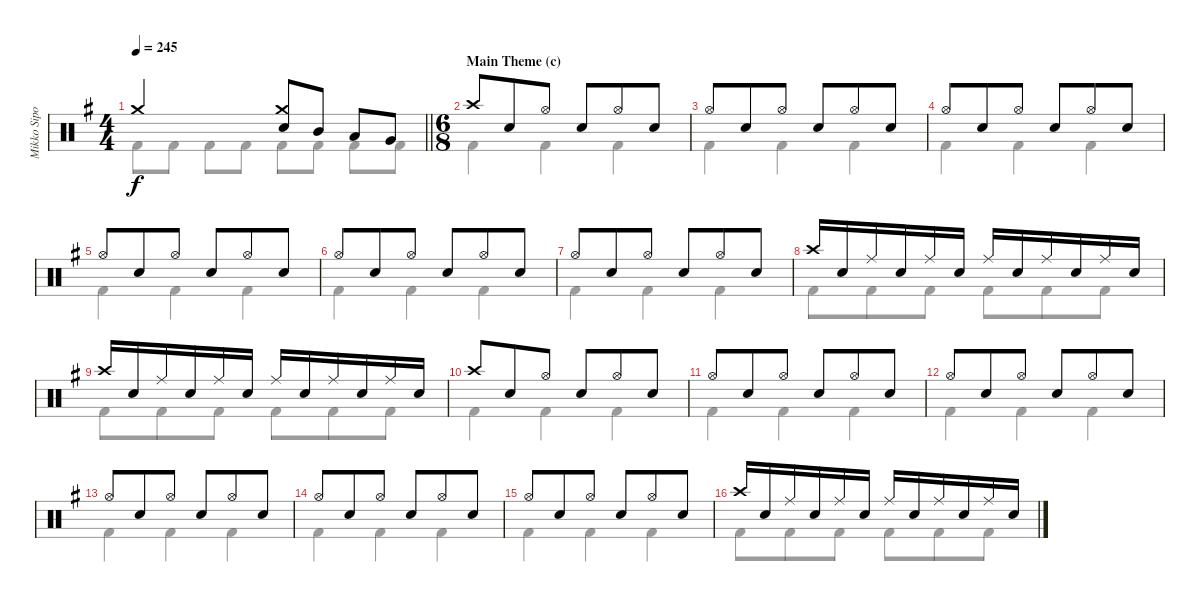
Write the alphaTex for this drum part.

\track ("Mikko Sipola (drums)" "Mikko Sipo") {instrument percussion}
\staff {score}
\articulation defaults
\voice
\ts (4 4)
\tempo 245
\clef neutral
\barLineRight lightlight
\ks eminor "Crash medium (hit)".2{dy f}
("Crash medium (hit)" "Electric Snare (hit)").8 "Mid Tom (hit)".8 "Low Tom (hit)".8 "Very Low Tom (hit)".8 |
\ts (6 8)
\section ("" "Main Theme (c)")
"Crash high (hit)".8 "Snare (hit) 2".8 "Hi-Hat (open)".8 "Snare (hit) 2".8 "Hi-Hat (open)".8 "Snare (hit) 2".8 |
"Hi-Hat (open)".8 "Snare (hit) 2".8 "Hi-Hat (open)".8 "Snare (hit) 2".8 "Hi-Hat (open)".8 "Snare (hit) 2".8 |
"Hi-Hat (open)".8 "Snare (hit) 2".8 "Hi-Hat (open)".8 "Snare (hit) 2".8 "Hi-Hat (open)".8 "Snare (hit) 2".8 |
"Hi-Hat (open)".8 "Snare (hit) 2".8 "Hi-Hat (open)".8 "Snare (hit) 2".8 "Hi-Hat (open)".8 "Snare (hit) 2".8 |
"Hi-Hat (open)".8 "Snare (hit) 2".8 "Hi-Hat (open)".8 "Snare (hit) 2".8 "Hi-Hat (open)".8 "Snare (hit) 2".8 |
"Hi-Hat (open)".8 "Snare (hit) 2".8 "Hi-Hat (open)".8 "Snare (hit) 2".8 "Hi-Hat (open)".8 "Snare (hit) 2".8 |
"Crash high (hit)".16 "Snare (hit) 2".16 "Ride (middle)".16 "Snare (hit) 2".16 "Ride (middle)".16 "Snare (hit) 2".16 "Ride (middle)".16 "Snare (hit) 2".16 "Ride (middle)".16 "Snare (hit) 2".16 "Ride (middle)".16 "Snare (hit) 2".16 |
"Crash high (hit)".16 "Snare (hit) 2".16 "Ride (middle)".16 "Snare (hit) 2".16 "Ride (middle)".16 "Snare (hit) 2".16 "Ride (middle)".16 "Snare (hit) 2".16 "Ride (middle)".16 "Snare (hit) 2".16 "Ride (middle)".16 "Snare (hit) 2".16 |
"Crash high (hit)".8 "Snare (hit) 2".8 "Hi-Hat (open)".8 "Snare (hit) 2".8 "Hi-Hat (open)".8 "Snare (hit) 2".8 |
"Hi-Hat (open)".8 "Snare (hit) 2".8 "Hi-Hat (open)".8 "Snare (hit) 2".8 "Hi-Hat (open)".8 "Snare (hit) 2".8 |
"Hi-Hat (open)".8 "Snare (hit) 2".8 "Hi-Hat (open)".8 "Snare (hit) 2".8 "Hi-Hat (open)".8 "Snare (hit) 2".8 |
"Hi-Hat (open)".8 "Snare (hit) 2".8 "Hi-Hat (open)".8 "Snare (hit) 2".8 "Hi-Hat (open)".8 "Snare (hit) 2".8 |
"Hi-Hat (open)".8 "Snare (hit) 2".8 "Hi-Hat (open)".8 "Snare (hit) 2".8 "Hi-Hat (open)".8 "Snare (hit) 2".8 |
"Hi-Hat (open)".8 "Snare (hit) 2".8 "Hi-Hat (open)".8 "Snare (hit) 2".8 "Hi-Hat (open)".8 "Snare (hit) 2".8 |
"Crash high (hit)".16 "Snare (hit) 2".16 "Ride (middle)".16 "Snare (hit) 2".16 "Ride (middle)".16 "Snare (hit) 2".16 "Ride (middle)".16 "Snare (hit) 2".16 "Ride (middle)".16 "Snare (hit) 2".16 "Ride (middle)".16 "Snare (hit) 2".16
\voice
\clef neutral
\ottava regular
\simile none
\barLineRight lightlight
\ks eminor "Kick (hit) 2".8{dy f} "Kick (hit) 2".8 "Kick (hit) 2".8 "Kick (hit) 2".8 "Kick (hit) 2".8 "Kick (hit) 2".8 "Kick (hit) 2".8 "Kick (hit) 2".8
|
"Kick (hit) 2".4 "Kick (hit) 2".4 "Kick (hit) 2".4 |
"Kick (hit) 2".4 "Kick (hit) 2".4 "Kick (hit) 2".4 |
"Kick (hit) 2".4 "Kick (hit) 2".4 "Kick (hit) 2".4 |
"Kick (hit) 2".4 "Kick (hit) 2".4 "Kick (hit) 2".4 |
"Kick (hit) 2".4 "Kick (hit) 2".4 "Kick (hit) 2".4 |
"Kick (hit) 2".4 "Kick (hit) 2".4 "Kick (hit) 2".4 |
"Kick (hit) 2".8 "Kick (hit) 2".8 "Kick (hit) 2".8 "Kick (hit) 2".8 "Kick (hit) 2".8 "Kick (hit) 2".8 |
"Kick (hit) 2".8 "Kick (hit) 2".8 "Kick (hit) 2".8 "Kick (hit) 2".8 "Kick (hit) 2".8 "Kick (hit) 2".8 |
"Kick (hit) 2".4 "Kick (hit) 2".4 "Kick (hit) 2".4 |
"Kick (hit) 2".4 "Kick (hit) 2".4 "Kick (hit) 2".4 |
"Kick (hit) 2".4 "Kick (hit) 2".4 "Kick (hit) 2".4 |
"Kick (hit) 2".4 "Kick (hit) 2".4 "Kick (hit) 2".4 |
"Kick (hit) 2".4 "Kick (hit) 2".4 "Kick (hit) 2".4 |
"Kick (hit) 2".4 "Kick (hit) 2".4 "Kick (hit) 2".4 |
"Kick (hit) 2".8 "Kick (hit) 2".8 "Kick (hit) 2".8 "Kick (hit) 2".8 "Kick (hit) 2".8 "Kick (hit) 2".8
